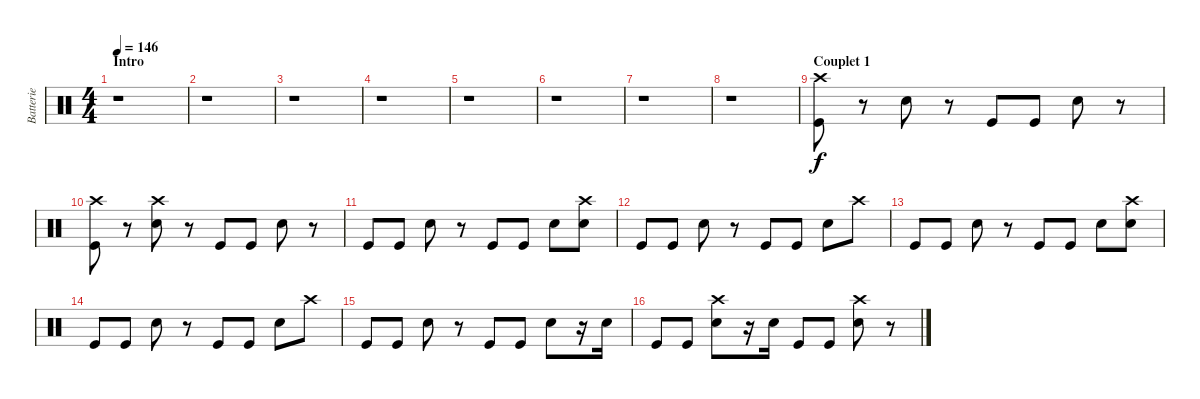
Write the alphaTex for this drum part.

\track ("Batterie" "Batterie") {instrument percussion}
\staff {score}
\articulation defaults
\ts (4 4)
\section ("" "Intro")
\tempo 146
\clef neutral
\ks c
r.1{dy f} |
r.1 |
r.1 |
r.1 |
r.1 |
r.1 |
r.1 |
r.1 |
\section ("" "Couplet 1")
("Crash high (hit)" "Kick (hit)").8 r.8 "Snare (hit) 2".8 r.8 "Kick (hit)".8 "Kick (hit)".8 "Snare (hit) 2".8 r.8 |
("Crash high (hit)" "Kick (hit)").8 r.8 ("Crash high (hit)" "Snare (hit) 2").8 r.8 "Kick (hit)".8 "Kick (hit)".8 "Snare (hit) 2".8 r.8 |
"Kick (hit)".8 "Kick (hit)".8 "Snare (hit) 2".8 r.8 "Kick (hit)".8 "Kick (hit)".8 "Snare (hit) 2".8 ("Crash high (hit)" "Snare (hit) 2").8 |
"Kick (hit)".8 "Kick (hit)".8 "Snare (hit) 2".8 r.8 "Kick (hit)".8 "Kick (hit)".8 "Snare (hit) 2".8 "Crash high (hit)".8 |
"Kick (hit)".8 "Kick (hit)".8 "Snare (hit) 2".8 r.8 "Kick (hit)".8 "Kick (hit)".8 "Snare (hit) 2".8 ("Crash high (hit)" "Snare (hit) 2").8 |
"Kick (hit)".8 "Kick (hit)".8 "Snare (hit) 2".8 r.8 "Kick (hit)".8 "Kick (hit)".8 "Snare (hit) 2".8 "Crash high (hit)".8 |
"Kick (hit)".8 "Kick (hit)".8 "Snare (hit) 2".8 r.8 "Kick (hit)".8 "Kick (hit)".8 "Snare (hit) 2".8 r.16 "Snare (hit) 2".16 |
"Kick (hit)".8 "Kick (hit)".8 ("Crash high (hit)" "Snare (hit) 2").8 r.16 "Snare (hit) 2".16 "Kick (hit)".8 "Kick (hit)".8 ("Crash high (hit)" "Snare (hit) 2").8 r.8
